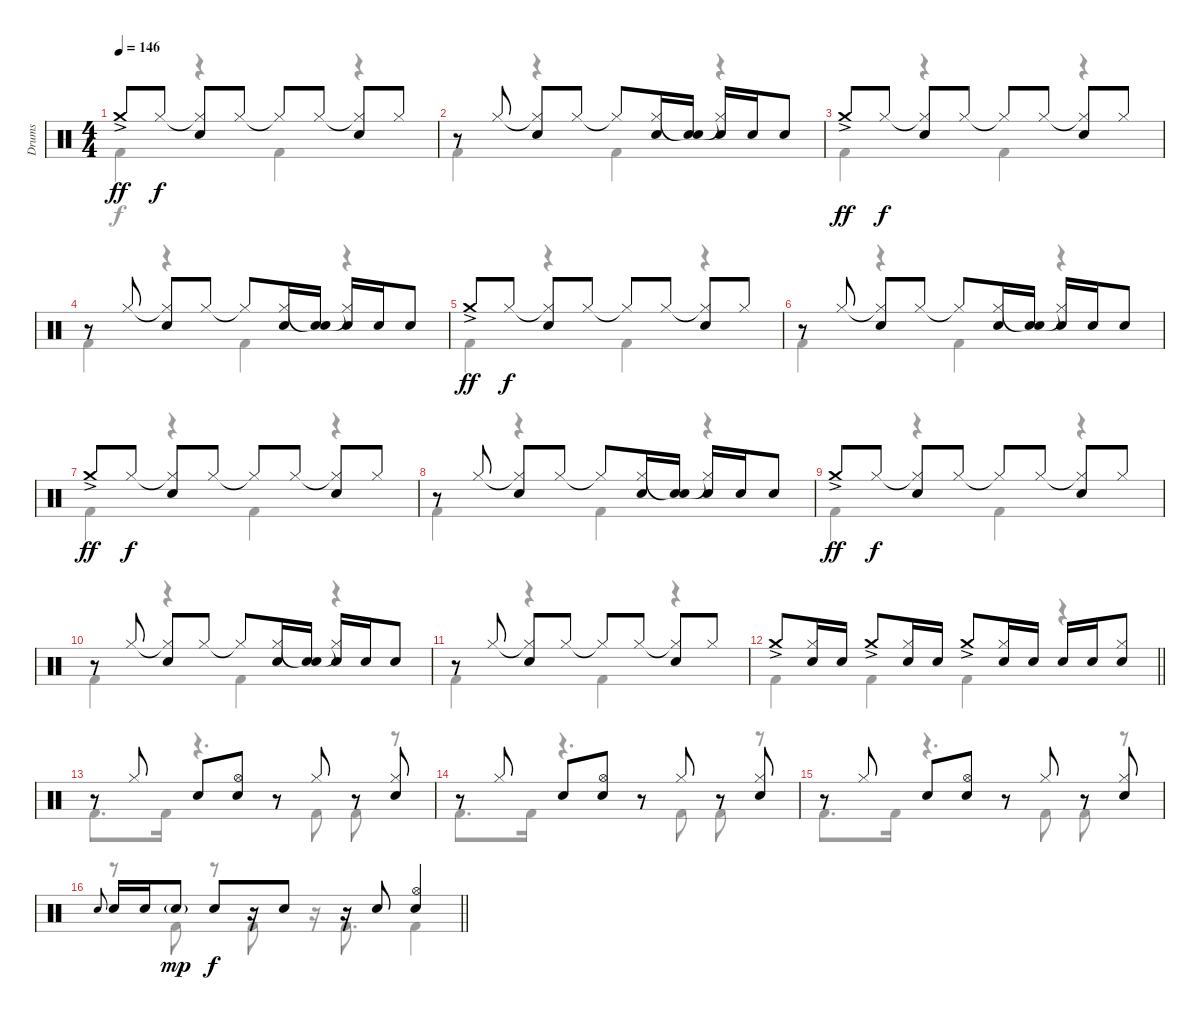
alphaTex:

\track ("Drums" "Drums") {instrument percussion}
\staff {score}
\articulation defaults
\voice
\ts (4 4)
\tempo 146
\clef neutral
\ks c "Crash medium (hit)"{ac}.8{dy ff} "Hi-Hat (closed)".8{dy f}
("Hi-Hat (closed)"{t} "Snare (hit) 2").8 "Hi-Hat (closed)".8 "Hi-Hat (closed)"{t}.8 "Hi-Hat (closed)".8 ("Hi-Hat (closed)"{t} "Snare (hit) 2").8 "Hi-Hat (closed)".8 |
r.8 "Hi-Hat (closed)".8 ("Hi-Hat (closed)"{t} "Snare (hit) 2").8 "Hi-Hat (closed)".8 "Hi-Hat (closed)"{t}.8 ("Hi-Hat (closed)" "Snare (hit) 2").16 ("Snare (hit)"{t} "Snare (hit) 2").16 ("Hi-Hat (closed)"{t} "Snare (hit) 2").16 "Snare (hit) 2".16 "Snare (hit) 2".8 |
"Crash medium (hit)"{ac}.8{dy ff} "Hi-Hat (closed)".8{dy f} ("Hi-Hat (closed)"{t} "Snare (hit) 2").8 "Hi-Hat (closed)".8 "Hi-Hat (closed)"{t}.8 "Hi-Hat (closed)".8 ("Hi-Hat (closed)"{t} "Snare (hit) 2").8 "Hi-Hat (closed)".8 |
r.8 "Hi-Hat (closed)".8 ("Hi-Hat (closed)"{t} "Snare (hit) 2").8 "Hi-Hat (closed)".8 "Hi-Hat (closed)"{t}.8 ("Hi-Hat (closed)" "Snare (hit) 2").16 ("Snare (hit)"{t} "Snare (hit) 2").16 ("Hi-Hat (closed)"{t} "Snare (hit) 2").16 "Snare (hit) 2".16 "Snare (hit) 2".8 |
"Crash medium (hit)"{ac}.8{dy ff} "Hi-Hat (closed)".8{dy f} ("Hi-Hat (closed)"{t} "Snare (hit) 2").8 "Hi-Hat (closed)".8 "Hi-Hat (closed)"{t}.8 "Hi-Hat (closed)".8 ("Hi-Hat (closed)"{t} "Snare (hit) 2").8 "Hi-Hat (closed)".8 |
r.8 "Hi-Hat (closed)".8 ("Hi-Hat (closed)"{t} "Snare (hit) 2").8 "Hi-Hat (closed)".8 "Hi-Hat (closed)"{t}.8 ("Hi-Hat (closed)" "Snare (hit) 2").16 ("Snare (hit)"{t} "Snare (hit) 2").16 ("Hi-Hat (closed)"{t} "Snare (hit) 2").16 "Snare (hit) 2".16 "Snare (hit) 2".8 |
"Crash medium (hit)"{ac}.8{dy ff} "Hi-Hat (closed)".8{dy f} ("Hi-Hat (closed)"{t} "Snare (hit) 2").8 "Hi-Hat (closed)".8 "Hi-Hat (closed)"{t}.8 "Hi-Hat (closed)".8 ("Hi-Hat (closed)"{t} "Snare (hit) 2").8 "Hi-Hat (closed)".8 |
r.8 "Hi-Hat (closed)".8 ("Hi-Hat (closed)"{t} "Snare (hit) 2").8 "Hi-Hat (closed)".8 "Hi-Hat (closed)"{t}.8 ("Hi-Hat (closed)" "Snare (hit) 2").16 ("Snare (hit)"{t} "Snare (hit) 2").16 ("Hi-Hat (closed)"{t} "Snare (hit) 2").16 "Snare (hit) 2".16 "Snare (hit) 2".8 |
"Crash medium (hit)"{ac}.8{dy ff} "Hi-Hat (closed)".8{dy f} ("Hi-Hat (closed)"{t} "Snare (hit) 2").8 "Hi-Hat (closed)".8 "Hi-Hat (closed)"{t}.8 "Hi-Hat (closed)".8 ("Hi-Hat (closed)"{t} "Snare (hit) 2").8 "Hi-Hat (closed)".8 |
r.8 "Hi-Hat (closed)".8 ("Hi-Hat (closed)"{t} "Snare (hit) 2").8 "Hi-Hat (closed)".8 "Hi-Hat (closed)"{t}.8 ("Hi-Hat (closed)" "Snare (hit) 2").16 ("Snare (hit)"{t} "Snare (hit) 2").16 ("Hi-Hat (closed)"{t} "Snare (hit) 2").16 "Snare (hit) 2".16 "Snare (hit) 2".8 |
r.8 "Hi-Hat (closed)".8 ("Hi-Hat (closed)"{t} "Snare (hit) 2").8 "Hi-Hat (closed)".8 "Hi-Hat (closed)"{t}.8 "Hi-Hat (closed)".8 ("Hi-Hat (closed)"{t} "Snare (hit) 2").8 "Hi-Hat (closed)".8 |
\barLineRight lightlight "Crash medium (hit)"{ac}.8
("Hi-Hat (closed)" "Snare (hit) 2").16 "Snare (hit) 2".16 "Crash medium (hit)"{ac}.8 ("Hi-Hat (closed)" "Snare (hit) 2").16 "Snare (hit) 2".16 "Crash medium (hit)"{ac}.8 ("Hi-Hat (closed)" "Snare (hit) 2").16 "Snare (hit) 2".16 "Snare (hit) 2".16 "Snare (hit) 2".16 ("Hi-Hat (closed)" "Snare (hit) 2").8 |
r.8 "Hi-Hat (closed)".8 "Snare (hit) 2".8 ("Hi-Hat (open)" "Electric Snare (hit)").8 r.8 "Hi-Hat (closed)".8 r.8 ("Hi-Hat (closed)" "Snare (hit) 2").8 |
r.8 "Hi-Hat (closed)".8 "Snare (hit) 2".8 ("Hi-Hat (open)" "Electric Snare (hit)").8 r.8 "Hi-Hat (closed)".8 r.8 ("Hi-Hat (closed)" "Snare (hit) 2").8 |
r.8 "Hi-Hat (closed)".8 "Snare (hit) 2".8 ("Hi-Hat (open)" "Electric Snare (hit)").8 r.8 "Hi-Hat (closed)".8 r.8 ("Hi-Hat (closed)" "Snare (hit) 2").8 |
\barLineRight lightlight "Snare (hit) 2".8{gr onbeat} "Snare (hit) 2".16 "Snare (hit) 2".16 "Snare (hit) 2"{g}.8{dy mp} "Snare (hit) 2".8{dy f}
r.16 "Snare (hit) 2".8 r.16 "Snare (hit) 2".8 ("Hi-Hat (open)" "Electric Snare (hit)").4
\voice
\clef neutral
\ottava regular
\simile none
\ks c "Kick (hit) 2".4{dy f}
r.4 "Kick (hit) 2".4 r.4 |
"Kick (hit) 2".4 r.4 "Kick (hit) 2".4 r.4 |
"Kick (hit) 2".4 r.4 "Kick (hit) 2".4 r.4 |
"Kick (hit) 2".4 r.4 "Kick (hit) 2".4 r.4 |
"Kick (hit) 2".4 r.4 "Kick (hit) 2".4 r.4 |
"Kick (hit) 2".4 r.4 "Kick (hit) 2".4 r.4 |
"Kick (hit) 2".4 r.4 "Kick (hit) 2".4 r.4 |
"Kick (hit) 2".4 r.4 "Kick (hit) 2".4 r.4 |
"Kick (hit) 2".4 r.4 "Kick (hit) 2".4 r.4 |
"Kick (hit) 2".4 r.4 "Kick (hit) 2".4 r.4 |
"Kick (hit) 2".4 r.4 "Kick (hit) 2".4 r.4 |
\barLineRight lightlight "Kick (hit) 2".4 "Kick (hit) 2".4 "Kick (hit) 2".4
r.4 |
"Kick (hit) 2".8{d} "Kick (hit) 2".16 r.4{d} "Kick (hit) 2".8 "Kick (hit) 2".8 r.8 |
"Kick (hit) 2".8{d} "Kick (hit) 2".16 r.4{d} "Kick (hit) 2".8 "Kick (hit) 2".8 r.8 |
"Kick (hit) 2".8{d} "Kick (hit) 2".16 r.4{d} "Kick (hit) 2".8 "Kick (hit) 2".8 r.8 |
\barLineRight lightlight
r.8 "Kick (hit) 2".8 r.8 "Kick (hit) 2".8 r.16 "Kick (hit) 2".8{d} "Kick (hit) 2".4
